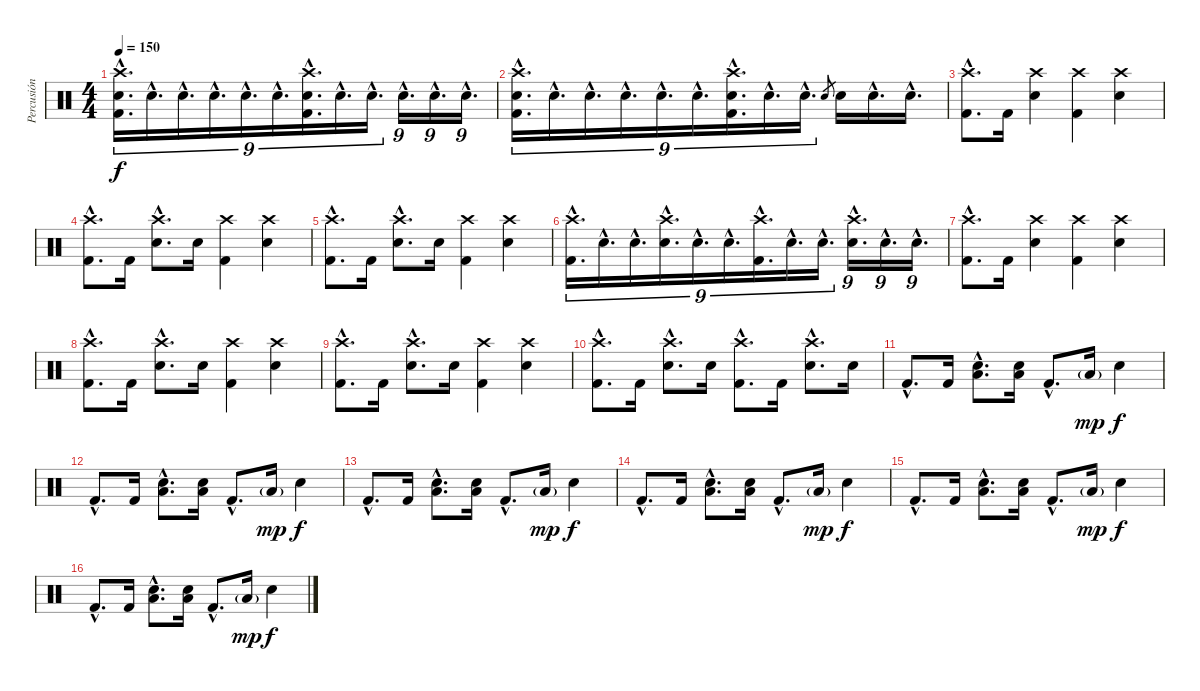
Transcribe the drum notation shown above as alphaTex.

\track ("Percusión" "Percusión") {instrument percussion}
\staff {score}
\articulation defaults
\ts (4 4)
\tempo 150
\clef neutral
\ks c
("Crash high (hit)"{hac} "Electric Snare (hit)"{hac} "Kick (hit) 2"{hac}).16{d tu (9 8) dy f} "Electric Snare (hit)"{hac}.16{d tu (9 8)} "Electric Snare (hit)"{hac}.16{d tu (9 8)} "Electric Snare (hit)"{hac}.16{d tu (9 8)} "Electric Snare (hit)"{hac}.16{d tu (9 8)} "Electric Snare (hit)"{hac}.16{d tu (9 8)} ("Crash high (hit)"{hac} "Electric Snare (hit)"{hac} "Kick (hit) 2"{hac}).16{d tu (9 8)} "Electric Snare (hit)"{hac}.16{d tu (9 8)} "Electric Snare (hit)"{hac}.16{d tu (9 8)} "Electric Snare (hit)"{hac}.16{d tu (9 8)} "Electric Snare (hit)"{hac}.16{d tu (9 8)} "Electric Snare (hit)"{hac}.16{d tu (9 8)} |
("Crash high (hit)"{hac} "Electric Snare (hit)"{hac} "Kick (hit) 2"{hac}).16{d tu (9 8)} "Electric Snare (hit)"{hac}.16{d tu (9 8)} "Electric Snare (hit)"{hac}.16{d tu (9 8)} "Electric Snare (hit)"{hac}.16{d tu (9 8)} "Electric Snare (hit)"{hac}.16{d tu (9 8)} "Electric Snare (hit)"{hac}.16{d tu (9 8)} ("Crash high (hit)"{hac} "Electric Snare (hit)"{hac} "Kick (hit) 2"{hac}).16{d tu (9 8)} "Electric Snare (hit)"{hac}.16{d tu (9 8)} "Electric Snare (hit)"{hac}.16{d tu (9 8)} "Electric Snare (hit)".8{gr} "Electric Snare (hit)".16 "Electric Snare (hit)"{hac}.16{d} "Electric Snare (hit)"{hac}.16{d} |
("Crash high (hit)"{hac} "Kick (hit) 2"{hac}).8{d} "Kick (hit) 2".16 ("Crash high (hit)" "Electric Snare (hit)").4 ("Crash high (hit)" "Kick (hit) 2").4 ("Crash high (hit)" "Electric Snare (hit)").4 |
("Crash high (hit)"{hac} "Kick (hit) 2"{hac}).8{d} "Kick (hit) 2".16 ("Crash high (hit)"{hac} "Electric Snare (hit)"{hac}).8{d} "Electric Snare (hit)".16 ("Crash high (hit)" "Kick (hit) 2").4 ("Crash high (hit)" "Electric Snare (hit)").4 |
("Crash high (hit)"{hac} "Kick (hit) 2"{hac}).8{d} "Kick (hit) 2".16 ("Crash high (hit)"{hac} "Electric Snare (hit)"{hac}).8{d} "Electric Snare (hit)".16 ("Crash high (hit)" "Kick (hit) 2").4 ("Crash high (hit)" "Electric Snare (hit)").4 |
("Crash high (hit)"{hac} "Kick (hit) 2"{hac}).16{d tu (9 8)} "Electric Snare (hit)"{hac}.16{d tu (9 8)} "Electric Snare (hit)"{hac}.16{d tu (9 8)} ("Crash high (hit)"{hac} "Electric Snare (hit)"{hac}).16{d tu (9 8)} "Electric Snare (hit)"{hac}.16{d tu (9 8)} "Electric Snare (hit)"{hac}.16{d tu (9 8)} ("Crash high (hit)"{hac} "Kick (hit) 2"{hac}).16{d tu (9 8)} "Electric Snare (hit)"{hac}.16{d tu (9 8)} "Electric Snare (hit)"{hac}.16{d tu (9 8)} ("Crash high (hit)"{hac} "Electric Snare (hit)"{hac}).16{d tu (9 8)} "Electric Snare (hit)"{hac}.16{d tu (9 8)} "Electric Snare (hit)"{hac}.16{d tu (9 8)} |
("Crash high (hit)"{hac} "Kick (hit) 2"{hac}).8{d} "Kick (hit) 2".16 ("Crash high (hit)" "Electric Snare (hit)").4 ("Crash high (hit)" "Kick (hit) 2").4 ("Crash high (hit)" "Electric Snare (hit)").4 |
("Crash high (hit)"{hac} "Kick (hit) 2"{hac}).8{d} "Kick (hit) 2".16 ("Crash high (hit)"{hac} "Electric Snare (hit)"{hac}).8{d} "Electric Snare (hit)".16 ("Crash high (hit)" "Kick (hit) 2").4 ("Crash high (hit)" "Electric Snare (hit)").4 |
("Crash high (hit)"{hac} "Kick (hit) 2"{hac}).8{d} "Kick (hit) 2".16 ("Crash high (hit)"{hac} "Electric Snare (hit)"{hac}).8{d} "Electric Snare (hit)".16 ("Crash high (hit)" "Kick (hit) 2").4 ("Crash high (hit)" "Electric Snare (hit)").4 |
("Crash high (hit)"{hac} "Kick (hit) 2"{hac}).8{d} "Kick (hit) 2".16 ("Crash high (hit)"{hac} "Electric Snare (hit)"{hac}).8{d} "Electric Snare (hit)".16 ("Crash high (hit)"{hac} "Kick (hit) 2"{hac}).8{d} "Kick (hit) 2".16 ("Crash high (hit)"{hac} "Electric Snare (hit)"{hac}).8{d} "Electric Snare (hit)".16 |
"Kick (hit) 2"{hac}.8{d} "Kick (hit) 2".16 ("Low Tom (hit)"{hac} "Electric Snare (hit)"{hac}).8{d} ("Low Tom (hit)" "Electric Snare (hit)").16 "Kick (hit) 2"{hac}.8{d} "Low Tom (hit)"{g}.16{dy mp} "Electric Snare (hit)".4{dy f} |
"Kick (hit) 2"{hac}.8{d} "Kick (hit) 2".16 ("Low Tom (hit)"{hac} "Electric Snare (hit)"{hac}).8{d} ("Low Tom (hit)" "Electric Snare (hit)").16 "Kick (hit) 2"{hac}.8{d} "Low Tom (hit)"{g}.16{dy mp} "Electric Snare (hit)".4{dy f} |
"Kick (hit) 2"{hac}.8{d} "Kick (hit) 2".16 ("Low Tom (hit)"{hac} "Electric Snare (hit)"{hac}).8{d} ("Low Tom (hit)" "Electric Snare (hit)").16 "Kick (hit) 2"{hac}.8{d} "Low Tom (hit)"{g}.16{dy mp} "Electric Snare (hit)".4{dy f} |
"Kick (hit) 2"{hac}.8{d} "Kick (hit) 2".16 ("Low Tom (hit)"{hac} "Electric Snare (hit)"{hac}).8{d} ("Low Tom (hit)" "Electric Snare (hit)").16 "Kick (hit) 2"{hac}.8{d} "Low Tom (hit)"{g}.16{dy mp} "Electric Snare (hit)".4{dy f} |
"Kick (hit) 2"{hac}.8{d} "Kick (hit) 2".16 ("Low Tom (hit)"{hac} "Electric Snare (hit)"{hac}).8{d} ("Low Tom (hit)" "Electric Snare (hit)").16 "Kick (hit) 2"{hac}.8{d} "Low Tom (hit)"{g}.16{dy mp} "Electric Snare (hit)".4{dy f} |
"Kick (hit) 2"{hac}.8{d} "Kick (hit) 2".16 ("Low Tom (hit)"{hac} "Electric Snare (hit)"{hac}).8{d} ("Low Tom (hit)" "Electric Snare (hit)").16 "Kick (hit) 2"{hac}.8{d} "Low Tom (hit)"{g}.16{dy mp} "Electric Snare (hit)".4{dy f}
